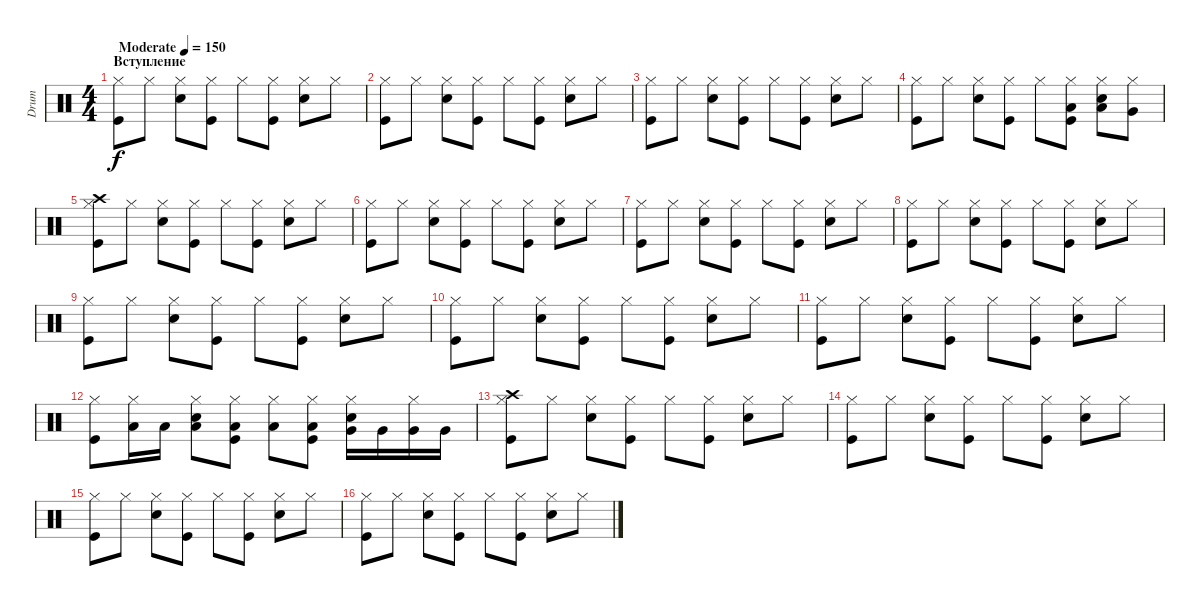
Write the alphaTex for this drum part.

\track ("Drum" "Drum") {instrument percussion}
\staff {score}
\articulation defaults
\ts (4 4)
\section ("" "Вступление")
\tempo (150 "Moderate")
\clef neutral
\ks c
("Kick (hit)" "Hi-Hat (closed)").8{dy f} "Hi-Hat (closed)".8 ("Snare (hit) 2" "Hi-Hat (closed)").8 ("Kick (hit)" "Hi-Hat (closed)").8 "Hi-Hat (closed)".8 ("Kick (hit)" "Hi-Hat (closed)").8 ("Snare (hit) 2" "Hi-Hat (closed)").8 "Hi-Hat (closed)".8 |
("Kick (hit)" "Hi-Hat (closed)").8 "Hi-Hat (closed)".8 ("Snare (hit) 2" "Hi-Hat (closed)").8 ("Kick (hit)" "Hi-Hat (closed)").8 "Hi-Hat (closed)".8 ("Kick (hit)" "Hi-Hat (closed)").8 ("Snare (hit) 2" "Hi-Hat (closed)").8 "Hi-Hat (closed)".8 |
("Kick (hit)" "Hi-Hat (closed)").8 "Hi-Hat (closed)".8 ("Snare (hit) 2" "Hi-Hat (closed)").8 ("Kick (hit)" "Hi-Hat (closed)").8 "Hi-Hat (closed)".8 ("Kick (hit)" "Hi-Hat (closed)").8 ("Snare (hit) 2" "Hi-Hat (closed)").8 "Hi-Hat (closed)".8 |
("Kick (hit)" "Hi-Hat (closed)").8 "Hi-Hat (closed)".8 ("Snare (hit) 2" "Hi-Hat (closed)").8 ("Kick (hit)" "Hi-Hat (closed)").8 "Hi-Hat (closed)".8 ("Kick (hit)" "Hi-Hat (closed)" "Low Tom (hit)").8 ("Snare (hit) 2" "Hi-Hat (closed)" "Low Tom (hit)").8 ("Hi-Hat (closed)" "Very Low Tom (hit)").8 |
("Kick (hit)" "Hi-Hat (closed)" "Crash high (hit)").8 "Hi-Hat (closed)".8 ("Snare (hit) 2" "Hi-Hat (closed)").8 ("Kick (hit)" "Hi-Hat (closed)").8 "Hi-Hat (closed)".8 ("Kick (hit)" "Hi-Hat (closed)").8 ("Snare (hit) 2" "Hi-Hat (closed)").8 "Hi-Hat (closed)".8 |
("Kick (hit)" "Hi-Hat (closed)").8 "Hi-Hat (closed)".8 ("Snare (hit) 2" "Hi-Hat (closed)").8 ("Kick (hit)" "Hi-Hat (closed)").8 "Hi-Hat (closed)".8 ("Kick (hit)" "Hi-Hat (closed)").8 ("Snare (hit) 2" "Hi-Hat (closed)").8 "Hi-Hat (closed)".8 |
("Kick (hit)" "Hi-Hat (closed)").8 "Hi-Hat (closed)".8 ("Snare (hit) 2" "Hi-Hat (closed)").8 ("Kick (hit)" "Hi-Hat (closed)").8 "Hi-Hat (closed)".8 ("Kick (hit)" "Hi-Hat (closed)").8 ("Snare (hit) 2" "Hi-Hat (closed)").8 "Hi-Hat (closed)".8 |
("Kick (hit)" "Hi-Hat (closed)").8 "Hi-Hat (closed)".8 ("Snare (hit) 2" "Hi-Hat (closed)").8 ("Kick (hit)" "Hi-Hat (closed)").8 "Hi-Hat (closed)".8 ("Kick (hit)" "Hi-Hat (closed)").8 ("Snare (hit) 2" "Hi-Hat (closed)").8 "Hi-Hat (closed)".8 |
("Kick (hit)" "Hi-Hat (closed)").8 "Hi-Hat (closed)".8 ("Snare (hit) 2" "Hi-Hat (closed)").8 ("Kick (hit)" "Hi-Hat (closed)").8 "Hi-Hat (closed)".8 ("Kick (hit)" "Hi-Hat (closed)").8 ("Snare (hit) 2" "Hi-Hat (closed)").8 "Hi-Hat (closed)".8 |
("Kick (hit)" "Hi-Hat (closed)").8 "Hi-Hat (closed)".8 ("Snare (hit) 2" "Hi-Hat (closed)").8 ("Kick (hit)" "Hi-Hat (closed)").8 "Hi-Hat (closed)".8 ("Kick (hit)" "Hi-Hat (closed)").8 ("Snare (hit) 2" "Hi-Hat (closed)").8 "Hi-Hat (closed)".8 |
("Kick (hit)" "Hi-Hat (closed)").8 "Hi-Hat (closed)".8 ("Snare (hit) 2" "Hi-Hat (closed)").8 ("Kick (hit)" "Hi-Hat (closed)").8 "Hi-Hat (closed)".8 ("Kick (hit)" "Hi-Hat (closed)").8 ("Snare (hit) 2" "Hi-Hat (closed)").8 "Hi-Hat (closed)".8 |
("Kick (hit)" "Hi-Hat (closed)").8 ("Hi-Hat (closed)" "Low Tom (hit)").16 "Low Tom (hit)".16 ("Snare (hit) 2" "Hi-Hat (closed)" "Low Tom (hit)").8 ("Kick (hit)" "Hi-Hat (closed)" "Low Tom (hit)").8 ("Hi-Hat (closed)" "Low Tom (hit)").8 ("Kick (hit)" "Hi-Hat (closed)" "Low Tom (hit)").8 ("Snare (hit) 2" "Hi-Hat (closed)" "Very Low Tom (hit)").16 "Very Low Tom (hit)".16 ("Hi-Hat (closed)" "Very Low Tom (hit)").16 "Very Low Tom (hit)".16 |
("Kick (hit)" "Hi-Hat (closed)" "Crash high (hit)").8 "Hi-Hat (closed)".8 ("Snare (hit) 2" "Hi-Hat (closed)").8 ("Kick (hit)" "Hi-Hat (closed)").8 "Hi-Hat (closed)".8 ("Kick (hit)" "Hi-Hat (closed)").8 ("Snare (hit) 2" "Hi-Hat (closed)").8 "Hi-Hat (closed)".8 |
("Kick (hit)" "Hi-Hat (closed)").8 "Hi-Hat (closed)".8 ("Snare (hit) 2" "Hi-Hat (closed)").8 ("Kick (hit)" "Hi-Hat (closed)").8 "Hi-Hat (closed)".8 ("Kick (hit)" "Hi-Hat (closed)").8 ("Snare (hit) 2" "Hi-Hat (closed)").8 "Hi-Hat (closed)".8 |
("Kick (hit)" "Hi-Hat (closed)").8 "Hi-Hat (closed)".8 ("Snare (hit) 2" "Hi-Hat (closed)").8 ("Kick (hit)" "Hi-Hat (closed)").8 "Hi-Hat (closed)".8 ("Kick (hit)" "Hi-Hat (closed)").8 ("Snare (hit) 2" "Hi-Hat (closed)").8 "Hi-Hat (closed)".8 |
("Kick (hit)" "Hi-Hat (closed)").8 "Hi-Hat (closed)".8 ("Snare (hit) 2" "Hi-Hat (closed)").8 ("Kick (hit)" "Hi-Hat (closed)").8 "Hi-Hat (closed)".8 ("Kick (hit)" "Hi-Hat (closed)").8 ("Snare (hit) 2" "Hi-Hat (closed)").8 "Hi-Hat (closed)".8
